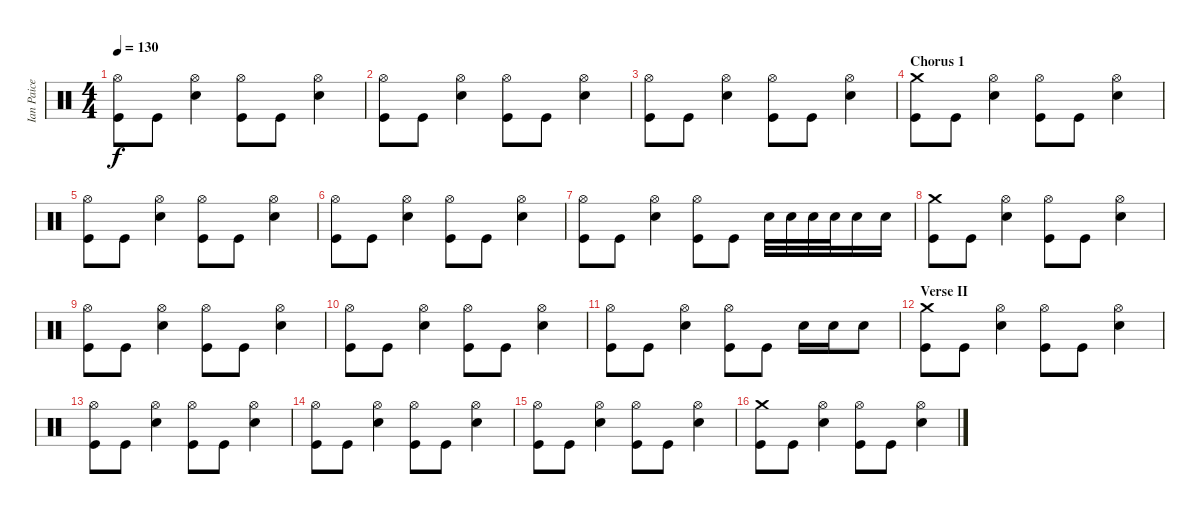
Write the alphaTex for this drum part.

\track ("Ian Paice - Drums" "Ian Paice ") {instrument percussion}
\staff {score}
\articulation defaults
\ts (4 4)
\tempo 130
\clef neutral
\ks c
("Hi-Hat (open)" "Kick (hit)").8{dy f} "Kick (hit)".8 ("Hi-Hat (open)" "Snare (hit) 2").4 ("Hi-Hat (open)" "Kick (hit)").8 "Kick (hit)".8 ("Hi-Hat (open)" "Snare (hit) 2").4 |
("Hi-Hat (open)" "Kick (hit)").8 "Kick (hit)".8 ("Hi-Hat (open)" "Snare (hit) 2").4 ("Hi-Hat (open)" "Kick (hit)").8 "Kick (hit)".8 ("Hi-Hat (open)" "Snare (hit) 2").4 |
("Hi-Hat (open)" "Kick (hit)").8 "Kick (hit)".8 ("Hi-Hat (open)" "Snare (hit) 2").4 ("Hi-Hat (open)" "Kick (hit)").8 "Kick (hit)".8 ("Hi-Hat (open)" "Snare (hit) 2").4 |
\section ("" "Chorus 1")
("Crash medium (hit)" "Kick (hit)").8 "Kick (hit)".8 ("Hi-Hat (open)" "Snare (hit) 2").4 ("Hi-Hat (open)" "Kick (hit)").8 "Kick (hit)".8 ("Hi-Hat (open)" "Snare (hit) 2").4 |
("Hi-Hat (open)" "Kick (hit)").8 "Kick (hit)".8 ("Hi-Hat (open)" "Snare (hit) 2").4 ("Hi-Hat (open)" "Kick (hit)").8 "Kick (hit)".8 ("Hi-Hat (open)" "Snare (hit) 2").4 |
("Hi-Hat (open)" "Kick (hit)").8 "Kick (hit)".8 ("Hi-Hat (open)" "Snare (hit) 2").4 ("Hi-Hat (open)" "Kick (hit)").8 "Kick (hit)".8 ("Hi-Hat (open)" "Snare (hit) 2").4 |
("Hi-Hat (open)" "Kick (hit)").8 "Kick (hit)".8 ("Hi-Hat (open)" "Snare (hit) 2").4 ("Hi-Hat (open)" "Kick (hit)").8 "Kick (hit)".8 "Snare (hit) 2".32 "Snare (hit) 2".32 "Snare (hit) 2".32 "Snare (hit) 2".32 "Snare (hit) 2".16 "Snare (hit) 2".16 |
("Crash medium (hit)" "Kick (hit)").8 "Kick (hit)".8 ("Hi-Hat (open)" "Snare (hit) 2").4 ("Hi-Hat (open)" "Kick (hit)").8 "Kick (hit)".8 ("Hi-Hat (open)" "Snare (hit) 2").4 |
("Hi-Hat (open)" "Kick (hit)").8 "Kick (hit)".8 ("Hi-Hat (open)" "Snare (hit) 2").4 ("Hi-Hat (open)" "Kick (hit)").8 "Kick (hit)".8 ("Hi-Hat (open)" "Snare (hit) 2").4 |
("Hi-Hat (open)" "Kick (hit)").8 "Kick (hit)".8 ("Hi-Hat (open)" "Snare (hit) 2").4 ("Hi-Hat (open)" "Kick (hit)").8 "Kick (hit)".8 ("Hi-Hat (open)" "Snare (hit) 2").4 |
("Hi-Hat (open)" "Kick (hit)").8 "Kick (hit)".8 ("Hi-Hat (open)" "Snare (hit) 2").4 ("Hi-Hat (open)" "Kick (hit)").8 "Kick (hit)".8 "Snare (hit) 2".16 "Snare (hit) 2".16 "Snare (hit) 2".8 |
\section ("" "Verse II")
("Crash medium (hit)" "Kick (hit)").8 "Kick (hit)".8 ("Hi-Hat (open)" "Snare (hit) 2").4 ("Hi-Hat (open)" "Kick (hit)").8 "Kick (hit)".8 ("Hi-Hat (open)" "Snare (hit) 2").4 |
("Hi-Hat (open)" "Kick (hit)").8 "Kick (hit)".8 ("Hi-Hat (open)" "Snare (hit) 2").4 ("Hi-Hat (open)" "Kick (hit)").8 "Kick (hit)".8 ("Hi-Hat (open)" "Snare (hit) 2").4 |
("Hi-Hat (open)" "Kick (hit)").8 "Kick (hit)".8 ("Hi-Hat (open)" "Snare (hit) 2").4 ("Hi-Hat (open)" "Kick (hit)").8 "Kick (hit)".8 ("Hi-Hat (open)" "Snare (hit) 2").4 |
("Hi-Hat (open)" "Kick (hit)").8 "Kick (hit)".8 ("Hi-Hat (open)" "Snare (hit) 2").4 ("Hi-Hat (open)" "Kick (hit)").8 "Kick (hit)".8 ("Hi-Hat (open)" "Snare (hit) 2").4 |
("Crash medium (hit)" "Kick (hit)").8 "Kick (hit)".8 ("Hi-Hat (open)" "Snare (hit) 2").4 ("Hi-Hat (open)" "Kick (hit)").8 "Kick (hit)".8 ("Hi-Hat (open)" "Snare (hit) 2").4
